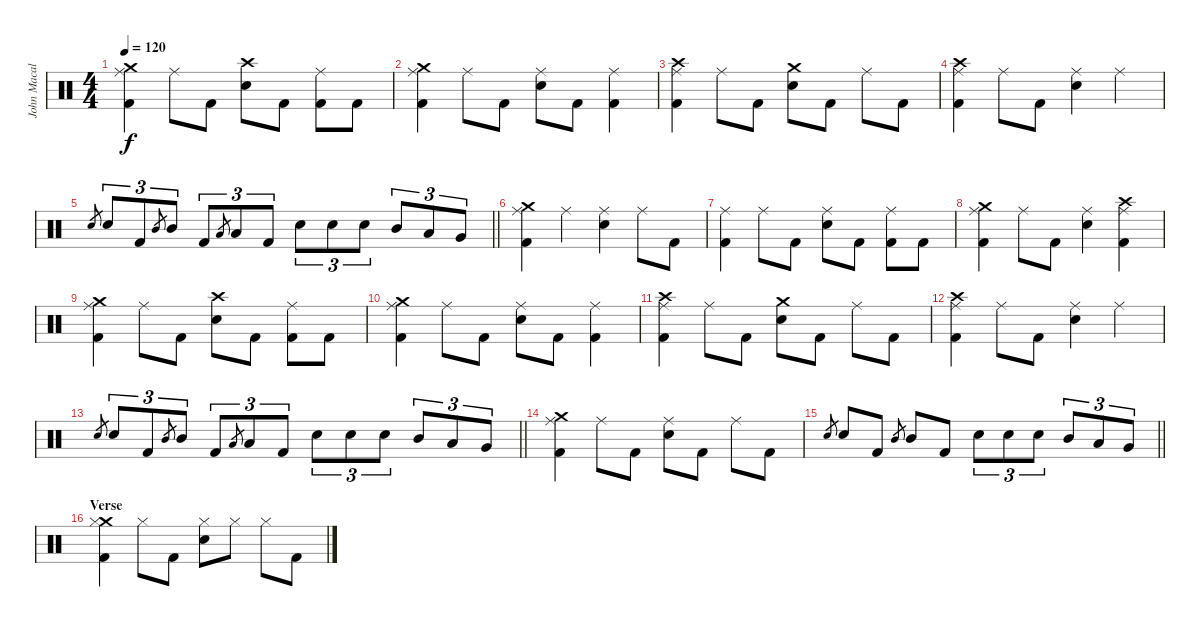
\track ("John Macaluso" "John Macal") {instrument percussion}
\staff {score}
\articulation defaults
\ts (4 4)
\tempo 120
\clef neutral
\ks c
("Crash medium (hit)" "Ride (middle)" "Kick (hit) 2").4{dy f} "Ride (middle)".8 "Kick (hit) 2".8 ("Crash high (hit)" "Snare (hit) 2").8 "Kick (hit) 2".8 ("Ride (middle)" "Kick (hit) 2").8 "Kick (hit) 2".8 |
("Crash medium (hit)" "Ride (middle)" "Kick (hit) 2").4 "Ride (middle)".8 "Kick (hit) 2".8 ("Ride (middle)" "Snare (hit) 2").8 "Kick (hit) 2".8 ("Ride (middle)" "Kick (hit) 2").4 |
("Crash high (hit)" "Ride (middle)" "Kick (hit) 2").4 "Ride (middle)".8 "Kick (hit) 2".8 ("Crash medium (hit)" "Snare (hit) 2").8 "Kick (hit) 2".8 "Ride (middle)".8 "Kick (hit) 2".8 |
("Crash high (hit)" "Ride (middle)" "Kick (hit) 2").4 "Ride (middle)".8 "Kick (hit) 2".8 ("Ride (middle)" "Snare (hit) 2").4 "Ride (middle)".4 |
\barLineRight lightlight "Snare (hit) 2".8{gr} "Snare (hit) 2".8{tu (3 2)} "Kick (hit) 2".8{tu (3 2)} "Mid Tom (hit)".8{gr} "Mid Tom (hit)".8{tu (3 2)} "Kick (hit) 2".8{tu (3 2)} "Low Tom (hit)".8{gr} "Low Tom (hit)".8{tu (3 2)} "Kick (hit) 2".8{tu (3 2)} "Snare (hit) 2".8{tu (3 2)} "Snare (hit) 2".8{tu (3 2)} "Snare (hit) 2".8{tu (3 2)} "Mid Tom (hit)".8{tu (3 2)} "Low Tom (hit)".8{tu (3 2)} "Very Low Tom (hit)".8{tu (3 2)}
|
("Crash medium (hit)" "Ride (middle)" "Kick (hit) 2").4 "Ride (middle)".4 ("Ride (middle)" "Snare (hit) 2").4 "Ride (middle)".8 "Kick (hit) 2".8 |
("Ride (middle)" "Kick (hit) 2").4 "Ride (middle)".8 "Kick (hit) 2".8 ("Ride (middle)" "Snare (hit) 2").8 "Kick (hit) 2".8 ("Ride (middle)" "Kick (hit) 2").8 "Kick (hit) 2".8 |
("Crash medium (hit)" "Ride (middle)" "Kick (hit) 2").4 "Ride (middle)".8 "Kick (hit) 2".8 ("Ride (middle)" "Snare (hit) 2").4 ("Crash high (hit)" "Ride (middle)" "Kick (hit) 2").4 |
("Crash medium (hit)" "Ride (middle)" "Kick (hit) 2").4 "Ride (middle)".8 "Kick (hit) 2".8 ("Crash high (hit)" "Snare (hit) 2").8 "Kick (hit) 2".8 ("Ride (middle)" "Kick (hit) 2").8 "Kick (hit) 2".8 |
("Crash medium (hit)" "Ride (middle)" "Kick (hit) 2").4 "Ride (middle)".8 "Kick (hit) 2".8 ("Ride (middle)" "Snare (hit) 2").8 "Kick (hit) 2".8 ("Ride (middle)" "Kick (hit) 2").4 |
("Crash high (hit)" "Ride (middle)" "Kick (hit) 2").4 "Ride (middle)".8 "Kick (hit) 2".8 ("Crash medium (hit)" "Snare (hit) 2").8 "Kick (hit) 2".8 "Ride (middle)".8 "Kick (hit) 2".8 |
("Crash high (hit)" "Ride (middle)" "Kick (hit) 2").4 "Ride (middle)".8 "Kick (hit) 2".8 ("Ride (middle)" "Snare (hit) 2").4 "Ride (middle)".4 |
\barLineRight lightlight "Snare (hit) 2".8{gr} "Snare (hit) 2".8{tu (3 2)} "Kick (hit) 2".8{tu (3 2)} "Mid Tom (hit)".8{gr} "Mid Tom (hit)".8{tu (3 2)} "Kick (hit) 2".8{tu (3 2)} "Low Tom (hit)".8{gr} "Low Tom (hit)".8{tu (3 2)} "Kick (hit) 2".8{tu (3 2)} "Snare (hit) 2".8{tu (3 2)} "Snare (hit) 2".8{tu (3 2)} "Snare (hit) 2".8{tu (3 2)} "Mid Tom (hit)".8{tu (3 2)} "Low Tom (hit)".8{tu (3 2)} "Very Low Tom (hit)".8{tu (3 2)}
|
("Crash medium (hit)" "Ride (middle)" "Kick (hit) 2").4 "Ride (middle)".8 "Kick (hit) 2".8 ("Ride (middle)" "Snare (hit) 2").8 "Kick (hit) 2".8 "Ride (middle)".8 "Kick (hit) 2".8 |
\barLineRight lightlight "Snare (hit) 2".8{gr} "Snare (hit) 2".8 "Kick (hit) 2".8 "Mid Tom (hit)".8{gr} "Mid Tom (hit)".8 "Kick (hit) 2".8 "Snare (hit) 2".8{tu (3 2)} "Snare (hit) 2".8{tu (3 2)} "Snare (hit) 2".8{tu (3 2)} "Mid Tom (hit)".8{tu (3 2)} "Low Tom (hit)".8{tu (3 2)} "Very Low Tom (hit)".8{tu (3 2)}
|
\section ("" "Verse")
("Crash medium (hit)" "Hi-Hat (closed)" "Kick (hit) 2").4 "Hi-Hat (closed)".8 "Kick (hit) 2".8 ("Hi-Hat (closed)" "Snare (hit) 2").8 "Hi-Hat (closed)".8 "Hi-Hat (closed)".8 "Kick (hit) 2".8
